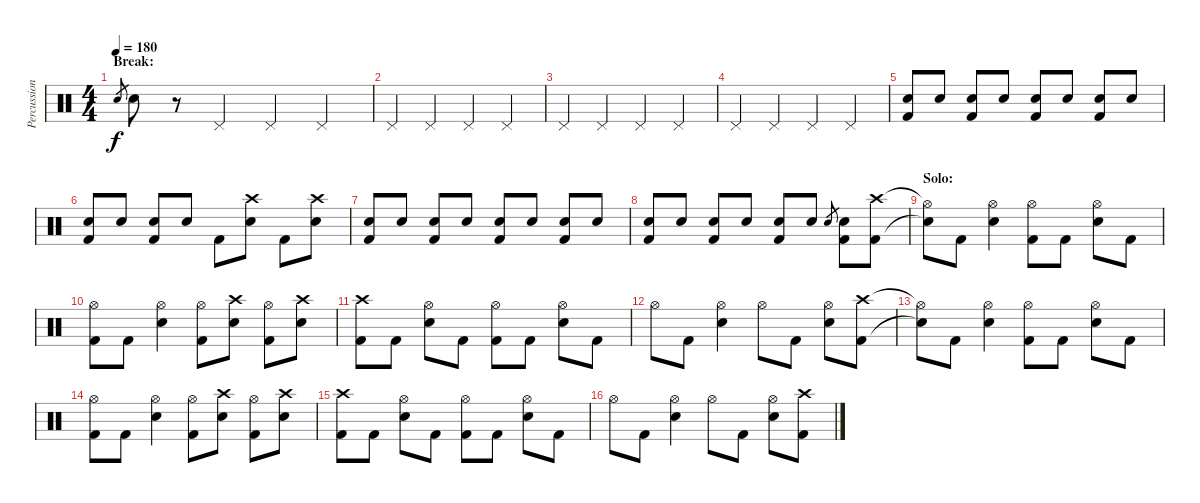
\track ("Percussion" "Percussion") {instrument percussion}
\staff {score}
\articulation defaults
\ts (4 4)
\section ("" "Break:")
\tempo 180
\clef neutral
\ks c "Snare (hit) 2".8{gr dy f} "Snare (hit) 2".8
r.8 "Pedal Hi-Hat (hit)".4 "Pedal Hi-Hat (hit)".4 "Pedal Hi-Hat (hit)".4 |
"Pedal Hi-Hat (hit)".4 "Pedal Hi-Hat (hit)".4 "Pedal Hi-Hat (hit)".4 "Pedal Hi-Hat (hit)".4 |
"Pedal Hi-Hat (hit)".4 "Pedal Hi-Hat (hit)".4 "Pedal Hi-Hat (hit)".4 "Pedal Hi-Hat (hit)".4 |
"Pedal Hi-Hat (hit)".4 "Pedal Hi-Hat (hit)".4 "Pedal Hi-Hat (hit)".4 "Pedal Hi-Hat (hit)".4 |
("Snare (hit) 2" "Kick (hit) 2").8 "Snare (hit) 2".8 ("Snare (hit) 2" "Kick (hit) 2").8 "Snare (hit) 2".8 ("Snare (hit) 2" "Kick (hit) 2").8 "Snare (hit) 2".8 ("Snare (hit) 2" "Kick (hit) 2").8 "Snare (hit) 2".8 |
("Snare (hit) 2" "Kick (hit) 2").8 "Snare (hit) 2".8 ("Snare (hit) 2" "Kick (hit) 2").8 "Snare (hit) 2".8 "Kick (hit) 2".8 ("Crash high (hit)" "Snare (hit) 2").8 "Kick (hit) 2".8 ("Crash high (hit)" "Snare (hit) 2").8 |
("Snare (hit) 2" "Kick (hit) 2").8 "Snare (hit) 2".8 ("Snare (hit) 2" "Kick (hit) 2").8 "Snare (hit) 2".8 ("Snare (hit) 2" "Kick (hit) 2").8 "Snare (hit) 2".8 ("Snare (hit) 2" "Kick (hit) 2").8 "Snare (hit) 2".8 |
("Snare (hit) 2" "Kick (hit) 2").8 "Snare (hit) 2".8 ("Snare (hit) 2" "Kick (hit) 2").8 "Snare (hit) 2".8 ("Snare (hit) 2" "Kick (hit) 2").8 "Snare (hit) 2".8 "Snare (hit) 2".8{gr} ("Snare (hit) 2" "Kick (hit) 2").8 ("Crash high (hit)" "Kick (hit) 2").8 |
\section ("" "Solo:")
("Hi-Hat (open)"{t} "Snare (hit)"{t}).8 "Kick (hit) 2".8 ("Hi-Hat (open)" "Snare (hit) 2").4 ("Hi-Hat (open)" "Kick (hit) 2").8 "Kick (hit) 2".8 ("Hi-Hat (open)" "Snare (hit) 2").8 "Kick (hit) 2".8 |
("Hi-Hat (open)" "Kick (hit) 2").8 "Kick (hit) 2".8 ("Hi-Hat (open)" "Snare (hit) 2").4 ("Hi-Hat (open)" "Kick (hit) 2").8 ("Crash high (hit)" "Snare (hit) 2").8 ("Hi-Hat (open)" "Kick (hit) 2").8 ("Crash high (hit)" "Snare (hit) 2").8 |
("Crash high (hit)" "Kick (hit) 2").8 "Kick (hit) 2".8 ("Hi-Hat (open)" "Snare (hit) 2").8 "Kick (hit) 2".8 ("Hi-Hat (open)" "Kick (hit) 2").8 "Kick (hit) 2".8 ("Hi-Hat (open)" "Snare (hit) 2").8 "Kick (hit) 2".8 |
"Hi-Hat (open)".8 "Kick (hit) 2".8 ("Hi-Hat (open)" "Snare (hit) 2").4 "Hi-Hat (open)".8 "Kick (hit) 2".8 ("Hi-Hat (open)" "Snare (hit) 2").8 ("Crash high (hit)" "Kick (hit) 2").8 |
("Hi-Hat (open)"{t} "Snare (hit)"{t}).8 "Kick (hit) 2".8 ("Hi-Hat (open)" "Snare (hit) 2").4 ("Hi-Hat (open)" "Kick (hit) 2").8 "Kick (hit) 2".8 ("Hi-Hat (open)" "Snare (hit) 2").8 "Kick (hit) 2".8 |
("Hi-Hat (open)" "Kick (hit) 2").8 "Kick (hit) 2".8 ("Hi-Hat (open)" "Snare (hit) 2").4 ("Hi-Hat (open)" "Kick (hit) 2").8 ("Crash high (hit)" "Snare (hit) 2").8 ("Hi-Hat (open)" "Kick (hit) 2").8 ("Crash high (hit)" "Snare (hit) 2").8 |
("Crash high (hit)" "Kick (hit) 2").8 "Kick (hit) 2".8 ("Hi-Hat (open)" "Snare (hit) 2").8 "Kick (hit) 2".8 ("Hi-Hat (open)" "Kick (hit) 2").8 "Kick (hit) 2".8 ("Hi-Hat (open)" "Snare (hit) 2").8 "Kick (hit) 2".8 |
"Hi-Hat (open)".8 "Kick (hit) 2".8 ("Hi-Hat (open)" "Snare (hit) 2").4 "Hi-Hat (open)".8 "Kick (hit) 2".8 ("Hi-Hat (open)" "Snare (hit) 2").8 ("Crash high (hit)" "Kick (hit) 2").8
